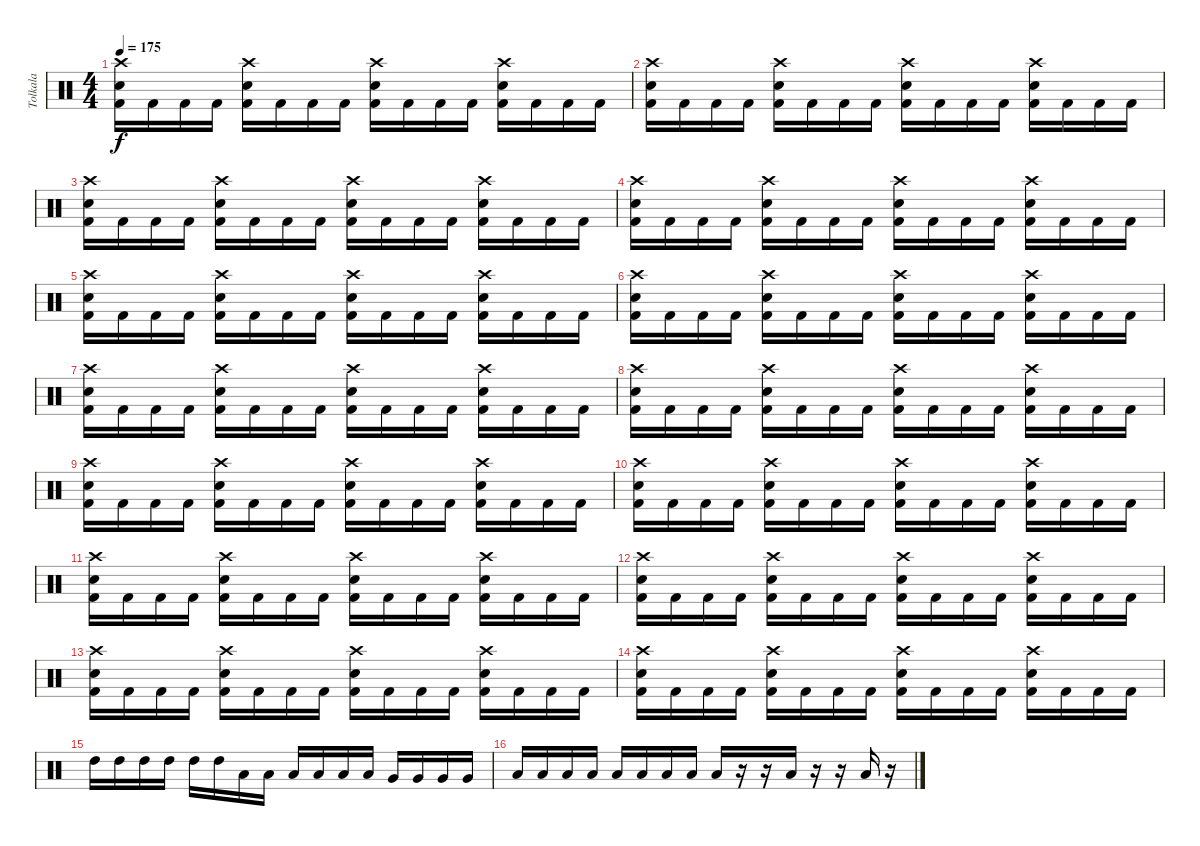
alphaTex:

\track ("Tolkala" "Tolkala") {instrument percussion}
\staff {score}
\articulation defaults
\ts (4 4)
\tempo 175
\clef neutral
\ks c
("Crash high (hit)" "Electric Snare (hit)" "Kick (hit) 2").16{dy f} "Kick (hit) 2".16 "Kick (hit) 2".16 "Kick (hit) 2".16 ("Crash high (hit)" "Electric Snare (hit)" "Kick (hit) 2").16 "Kick (hit) 2".16 "Kick (hit) 2".16 "Kick (hit) 2".16 ("Crash high (hit)" "Electric Snare (hit)" "Kick (hit) 2").16 "Kick (hit) 2".16 "Kick (hit) 2".16 "Kick (hit) 2".16 ("Crash high (hit)" "Electric Snare (hit)" "Kick (hit) 2").16 "Kick (hit) 2".16 "Kick (hit) 2".16 "Kick (hit) 2".16 |
("Crash high (hit)" "Electric Snare (hit)" "Kick (hit) 2").16 "Kick (hit) 2".16 "Kick (hit) 2".16 "Kick (hit) 2".16 ("Crash high (hit)" "Electric Snare (hit)" "Kick (hit) 2").16 "Kick (hit) 2".16 "Kick (hit) 2".16 "Kick (hit) 2".16 ("Crash high (hit)" "Electric Snare (hit)" "Kick (hit) 2").16 "Kick (hit) 2".16 "Kick (hit) 2".16 "Kick (hit) 2".16 ("Crash high (hit)" "Electric Snare (hit)" "Kick (hit) 2").16 "Kick (hit) 2".16 "Kick (hit) 2".16 "Kick (hit) 2".16 |
("Crash high (hit)" "Electric Snare (hit)" "Kick (hit) 2").16 "Kick (hit) 2".16 "Kick (hit) 2".16 "Kick (hit) 2".16 ("Crash high (hit)" "Electric Snare (hit)" "Kick (hit) 2").16 "Kick (hit) 2".16 "Kick (hit) 2".16 "Kick (hit) 2".16 ("Crash high (hit)" "Electric Snare (hit)" "Kick (hit) 2").16 "Kick (hit) 2".16 "Kick (hit) 2".16 "Kick (hit) 2".16 ("Crash high (hit)" "Electric Snare (hit)" "Kick (hit) 2").16 "Kick (hit) 2".16 "Kick (hit) 2".16 "Kick (hit) 2".16 |
("Crash high (hit)" "Electric Snare (hit)" "Kick (hit) 2").16 "Kick (hit) 2".16 "Kick (hit) 2".16 "Kick (hit) 2".16 ("Crash high (hit)" "Electric Snare (hit)" "Kick (hit) 2").16 "Kick (hit) 2".16 "Kick (hit) 2".16 "Kick (hit) 2".16 ("Crash high (hit)" "Electric Snare (hit)" "Kick (hit) 2").16 "Kick (hit) 2".16 "Kick (hit) 2".16 "Kick (hit) 2".16 ("Crash high (hit)" "Electric Snare (hit)" "Kick (hit) 2").16 "Kick (hit) 2".16 "Kick (hit) 2".16 "Kick (hit) 2".16 |
("Crash high (hit)" "Electric Snare (hit)" "Kick (hit) 2").16 "Kick (hit) 2".16 "Kick (hit) 2".16 "Kick (hit) 2".16 ("Crash high (hit)" "Electric Snare (hit)" "Kick (hit) 2").16 "Kick (hit) 2".16 "Kick (hit) 2".16 "Kick (hit) 2".16 ("Crash high (hit)" "Electric Snare (hit)" "Kick (hit) 2").16 "Kick (hit) 2".16 "Kick (hit) 2".16 "Kick (hit) 2".16 ("Crash high (hit)" "Electric Snare (hit)" "Kick (hit) 2").16 "Kick (hit) 2".16 "Kick (hit) 2".16 "Kick (hit) 2".16 |
("Crash high (hit)" "Electric Snare (hit)" "Kick (hit) 2").16 "Kick (hit) 2".16 "Kick (hit) 2".16 "Kick (hit) 2".16 ("Crash high (hit)" "Electric Snare (hit)" "Kick (hit) 2").16 "Kick (hit) 2".16 "Kick (hit) 2".16 "Kick (hit) 2".16 ("Crash high (hit)" "Electric Snare (hit)" "Kick (hit) 2").16 "Kick (hit) 2".16 "Kick (hit) 2".16 "Kick (hit) 2".16 ("Crash high (hit)" "Electric Snare (hit)" "Kick (hit) 2").16 "Kick (hit) 2".16 "Kick (hit) 2".16 "Kick (hit) 2".16 |
("Crash high (hit)" "Electric Snare (hit)" "Kick (hit) 2").16 "Kick (hit) 2".16 "Kick (hit) 2".16 "Kick (hit) 2".16 ("Crash high (hit)" "Electric Snare (hit)" "Kick (hit) 2").16 "Kick (hit) 2".16 "Kick (hit) 2".16 "Kick (hit) 2".16 ("Crash high (hit)" "Electric Snare (hit)" "Kick (hit) 2").16 "Kick (hit) 2".16 "Kick (hit) 2".16 "Kick (hit) 2".16 ("Crash high (hit)" "Electric Snare (hit)" "Kick (hit) 2").16 "Kick (hit) 2".16 "Kick (hit) 2".16 "Kick (hit) 2".16 |
("Crash high (hit)" "Electric Snare (hit)" "Kick (hit) 2").16 "Kick (hit) 2".16 "Kick (hit) 2".16 "Kick (hit) 2".16 ("Crash high (hit)" "Electric Snare (hit)" "Kick (hit) 2").16 "Kick (hit) 2".16 "Kick (hit) 2".16 "Kick (hit) 2".16 ("Crash high (hit)" "Electric Snare (hit)" "Kick (hit) 2").16 "Kick (hit) 2".16 "Kick (hit) 2".16 "Kick (hit) 2".16 ("Crash high (hit)" "Electric Snare (hit)" "Kick (hit) 2").16 "Kick (hit) 2".16 "Kick (hit) 2".16 "Kick (hit) 2".16 |
("Crash high (hit)" "Electric Snare (hit)" "Kick (hit) 2").16 "Kick (hit) 2".16 "Kick (hit) 2".16 "Kick (hit) 2".16 ("Crash high (hit)" "Electric Snare (hit)" "Kick (hit) 2").16 "Kick (hit) 2".16 "Kick (hit) 2".16 "Kick (hit) 2".16 ("Crash high (hit)" "Electric Snare (hit)" "Kick (hit) 2").16 "Kick (hit) 2".16 "Kick (hit) 2".16 "Kick (hit) 2".16 ("Crash high (hit)" "Electric Snare (hit)" "Kick (hit) 2").16 "Kick (hit) 2".16 "Kick (hit) 2".16 "Kick (hit) 2".16 |
("Crash high (hit)" "Electric Snare (hit)" "Kick (hit) 2").16 "Kick (hit) 2".16 "Kick (hit) 2".16 "Kick (hit) 2".16 ("Crash high (hit)" "Electric Snare (hit)" "Kick (hit) 2").16 "Kick (hit) 2".16 "Kick (hit) 2".16 "Kick (hit) 2".16 ("Crash high (hit)" "Electric Snare (hit)" "Kick (hit) 2").16 "Kick (hit) 2".16 "Kick (hit) 2".16 "Kick (hit) 2".16 ("Crash high (hit)" "Electric Snare (hit)" "Kick (hit) 2").16 "Kick (hit) 2".16 "Kick (hit) 2".16 "Kick (hit) 2".16 |
("Crash high (hit)" "Electric Snare (hit)" "Kick (hit) 2").16 "Kick (hit) 2".16 "Kick (hit) 2".16 "Kick (hit) 2".16 ("Crash high (hit)" "Electric Snare (hit)" "Kick (hit) 2").16 "Kick (hit) 2".16 "Kick (hit) 2".16 "Kick (hit) 2".16 ("Crash high (hit)" "Electric Snare (hit)" "Kick (hit) 2").16 "Kick (hit) 2".16 "Kick (hit) 2".16 "Kick (hit) 2".16 ("Crash high (hit)" "Electric Snare (hit)" "Kick (hit) 2").16 "Kick (hit) 2".16 "Kick (hit) 2".16 "Kick (hit) 2".16 |
("Crash high (hit)" "Electric Snare (hit)" "Kick (hit) 2").16 "Kick (hit) 2".16 "Kick (hit) 2".16 "Kick (hit) 2".16 ("Crash high (hit)" "Electric Snare (hit)" "Kick (hit) 2").16 "Kick (hit) 2".16 "Kick (hit) 2".16 "Kick (hit) 2".16 ("Crash high (hit)" "Electric Snare (hit)" "Kick (hit) 2").16 "Kick (hit) 2".16 "Kick (hit) 2".16 "Kick (hit) 2".16 ("Crash high (hit)" "Electric Snare (hit)" "Kick (hit) 2").16 "Kick (hit) 2".16 "Kick (hit) 2".16 "Kick (hit) 2".16 |
("Crash high (hit)" "Electric Snare (hit)" "Kick (hit) 2").16 "Kick (hit) 2".16 "Kick (hit) 2".16 "Kick (hit) 2".16 ("Crash high (hit)" "Electric Snare (hit)" "Kick (hit) 2").16 "Kick (hit) 2".16 "Kick (hit) 2".16 "Kick (hit) 2".16 ("Crash high (hit)" "Electric Snare (hit)" "Kick (hit) 2").16 "Kick (hit) 2".16 "Kick (hit) 2".16 "Kick (hit) 2".16 ("Crash high (hit)" "Electric Snare (hit)" "Kick (hit) 2").16 "Kick (hit) 2".16 "Kick (hit) 2".16 "Kick (hit) 2".16 |
("Crash high (hit)" "Electric Snare (hit)" "Kick (hit) 2").16 "Kick (hit) 2".16 "Kick (hit) 2".16 "Kick (hit) 2".16 ("Crash high (hit)" "Electric Snare (hit)" "Kick (hit) 2").16 "Kick (hit) 2".16 "Kick (hit) 2".16 "Kick (hit) 2".16 ("Crash high (hit)" "Electric Snare (hit)" "Kick (hit) 2").16 "Kick (hit) 2".16 "Kick (hit) 2".16 "Kick (hit) 2".16 ("Crash high (hit)" "Electric Snare (hit)" "Kick (hit) 2").16 "Kick (hit) 2".16 "Kick (hit) 2".16 "Kick (hit) 2".16 |
"High Tom (hit)".16 "High Tom (hit)".16 "High Tom (hit)".16 "High Tom (hit)".16 "High Tom (hit)".16 "High Tom (hit)".16 "Low Tom (hit)".16 "Low Tom (hit)".16 "Low Tom (hit)".16 "Low Tom (hit)".16 "Low Tom (hit)".16 "Low Tom (hit)".16 "Very Low Tom (hit)".16 "Very Low Tom (hit)".16 "Very Low Tom (hit)".16 "Very Low Tom (hit)".16 |
"Low Floor Tom (hit)".16 "Low Floor Tom (hit)".16 "Low Floor Tom (hit)".16 "Low Floor Tom (hit)".16 "Low Floor Tom (hit)".16 "Low Floor Tom (hit)".16 "Low Floor Tom (hit)".16 "Low Floor Tom (hit)".16 "Low Floor Tom (hit)".16 r.16 r.16 "Low Floor Tom (hit)".16 r.16 r.16 "Low Floor Tom (hit)".16 r.16
